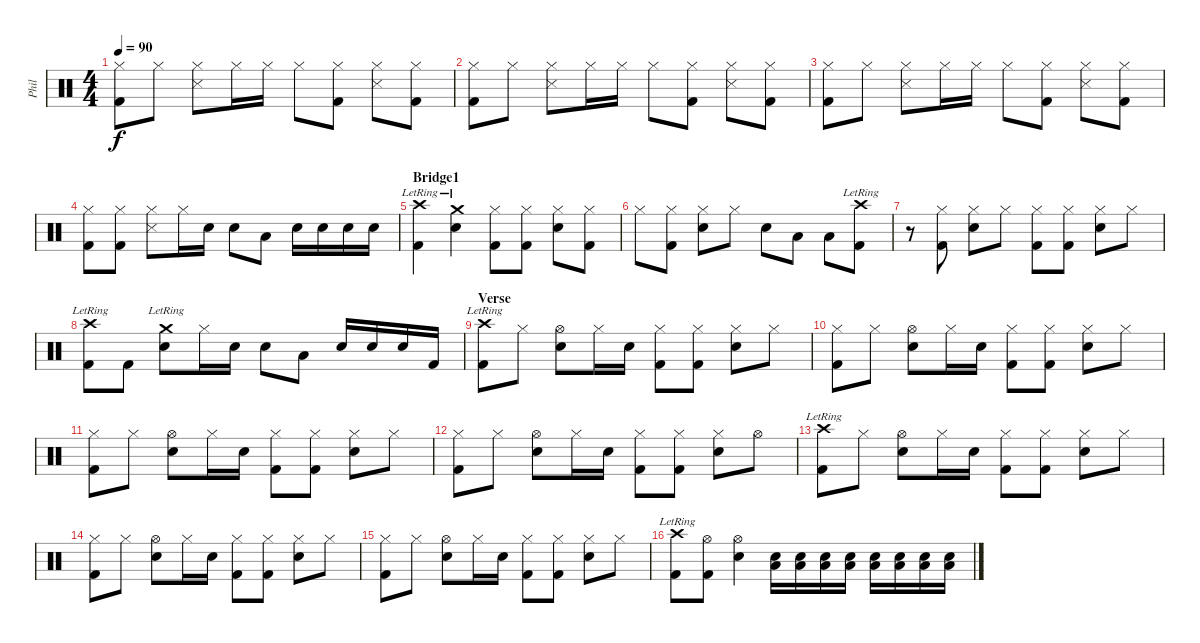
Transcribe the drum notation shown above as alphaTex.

\track ("Phil" "Phil") {instrument percussion}
\staff {score}
\articulation defaults
\ts (4 4)
\tempo 90
\clef neutral
\ks c
("Kick (hit) 2" "Hi-Hat (closed)").8{dy f} "Hi-Hat (closed)".8 ("Snare (side stick) 3" "Hi-Hat (closed)").8 "Hi-Hat (closed)".16 "Hi-Hat (closed)".16 "Hi-Hat (closed)".8 ("Kick (hit) 2" "Hi-Hat (closed)").8 ("Snare (side stick) 3" "Hi-Hat (closed)").8 ("Kick (hit) 2" "Hi-Hat (closed)").8 |
("Kick (hit) 2" "Hi-Hat (closed)").8 "Hi-Hat (closed)".8 ("Snare (side stick) 3" "Hi-Hat (closed)").8 "Hi-Hat (closed)".16 "Hi-Hat (closed)".16 "Hi-Hat (closed)".8 ("Kick (hit) 2" "Hi-Hat (closed)").8 ("Snare (side stick) 3" "Hi-Hat (closed)").8 ("Kick (hit) 2" "Hi-Hat (closed)").8 |
("Kick (hit) 2" "Hi-Hat (closed)").8 "Hi-Hat (closed)".8 ("Snare (side stick) 3" "Hi-Hat (closed)").8 "Hi-Hat (closed)".16 "Hi-Hat (closed)".16 "Hi-Hat (closed)".8 ("Kick (hit) 2" "Hi-Hat (closed)").8 ("Snare (side stick) 3" "Hi-Hat (closed)").8 ("Kick (hit) 2" "Hi-Hat (closed)").8 |
("Kick (hit) 2" "Hi-Hat (closed)").8 ("Kick (hit) 2" "Hi-Hat (closed)").8 ("Snare (side stick) 3" "Hi-Hat (closed)").8 "Hi-Hat (closed)".16 "Snare (hit) 2".16 "Snare (hit) 2".8 "Low Floor Tom (hit)".8 "Snare (hit) 2".16 "Snare (hit) 2".16 "Snare (hit) 2".16 "Snare (hit) 2".16 |
\section ("" "Bridge1")
("Kick (hit) 2" "Crash high (hit)"{lr}).4 ("Snare (hit) 2" "Crash medium (hit)"{lr}).4 ("Kick (hit) 2" "Hi-Hat (closed)").8 ("Kick (hit) 2" "Hi-Hat (closed)").8 ("Snare (hit) 2" "Hi-Hat (closed)").8 ("Kick (hit) 2" "Hi-Hat (closed)").8 |
"Hi-Hat (closed)".8 ("Kick (hit) 2" "Hi-Hat (closed)").8 ("Snare (hit) 2" "Hi-Hat (closed)").8 "Hi-Hat (closed)".8 "Snare (hit) 2".8 "Low Floor Tom (hit)".8 "Low Floor Tom (hit)".8 ("Kick (hit) 2" "Crash high (hit)"{lr}).8 |
r.8 ("Kick (hit) 2" "Hi-Hat (closed)").8 ("Snare (hit) 2" "Hi-Hat (closed)").8 "Hi-Hat (closed)".8 ("Kick (hit) 2" "Hi-Hat (closed)").8 ("Kick (hit) 2" "Hi-Hat (closed)").8 ("Snare (hit) 2" "Hi-Hat (closed)").8 "Hi-Hat (closed)".8 |
("Kick (hit) 2" "Crash high (hit)"{lr}).8 "Kick (hit) 2".8 ("Snare (hit) 2" "Crash medium (hit)"{lr}).8 "Hi-Hat (closed)".16 "Snare (hit) 2".16 "Snare (hit) 2".8 "Low Floor Tom (hit)".8 "Snare (hit) 2".16 "Snare (hit) 2".16 "Snare (hit) 2".16 "Kick (hit) 2".16 |
\section ("" "Verse")
("Kick (hit) 2" "Crash high (hit)"{lr}).8 "Hi-Hat (closed)".8 ("Snare (hit) 2" "Hi-Hat (open)").8 "Hi-Hat (closed)".16 "Snare (hit) 2".16 ("Kick (hit) 2" "Hi-Hat (closed)").8 ("Kick (hit) 2" "Hi-Hat (closed)").8 ("Snare (hit) 2" "Hi-Hat (closed)").8 "Hi-Hat (closed)".8 |
("Kick (hit) 2" "Hi-Hat (closed)").8 "Hi-Hat (closed)".8 ("Snare (hit) 2" "Hi-Hat (open)").8 "Hi-Hat (closed)".16 "Snare (hit) 2".16 ("Kick (hit) 2" "Hi-Hat (closed)").8 ("Kick (hit) 2" "Hi-Hat (closed)").8 ("Snare (hit) 2" "Hi-Hat (closed)").8 "Hi-Hat (closed)".8 |
("Kick (hit) 2" "Hi-Hat (closed)").8 "Hi-Hat (closed)".8 ("Snare (hit) 2" "Hi-Hat (open)").8 "Hi-Hat (closed)".16 "Snare (hit) 2".16 ("Kick (hit) 2" "Hi-Hat (closed)").8 ("Kick (hit) 2" "Hi-Hat (closed)").8 ("Snare (hit) 2" "Hi-Hat (closed)").8 "Hi-Hat (closed)".8 |
("Kick (hit) 2" "Hi-Hat (closed)").8 "Hi-Hat (closed)".8 ("Snare (hit) 2" "Hi-Hat (open)").8 "Hi-Hat (closed)".16 "Snare (hit) 2".16 ("Kick (hit) 2" "Hi-Hat (closed)").8 ("Kick (hit) 2" "Hi-Hat (closed)").8 ("Snare (hit) 2" "Hi-Hat (closed)").8 "Hi-Hat (open)".8 |
("Kick (hit) 2" "Crash high (hit)"{lr}).8 "Hi-Hat (closed)".8 ("Snare (hit) 2" "Hi-Hat (open)").8 "Hi-Hat (closed)".16 "Snare (hit) 2".16 ("Kick (hit) 2" "Hi-Hat (closed)").8 ("Kick (hit) 2" "Hi-Hat (closed)").8 ("Snare (hit) 2" "Hi-Hat (closed)").8 "Hi-Hat (closed)".8 |
("Kick (hit) 2" "Hi-Hat (closed)").8 "Hi-Hat (closed)".8 ("Snare (hit) 2" "Hi-Hat (open)").8 "Hi-Hat (closed)".16 "Snare (hit) 2".16 ("Kick (hit) 2" "Hi-Hat (closed)").8 ("Kick (hit) 2" "Hi-Hat (closed)").8 ("Snare (hit) 2" "Hi-Hat (closed)").8 "Hi-Hat (closed)".8 |
("Kick (hit) 2" "Hi-Hat (closed)").8 "Hi-Hat (closed)".8 ("Snare (hit) 2" "Hi-Hat (open)").8 "Hi-Hat (closed)".16 "Snare (hit) 2".16 ("Kick (hit) 2" "Hi-Hat (closed)").8 ("Kick (hit) 2" "Hi-Hat (closed)").8 ("Snare (hit) 2" "Hi-Hat (closed)").8 "Hi-Hat (closed)".8 |
("Kick (hit) 2" "Crash high (hit)"{lr}).8 ("Kick (hit) 2" "Hi-Hat (open)").8 ("Snare (hit) 2" "Hi-Hat (open)").4 ("Snare (hit) 2" "Low Floor Tom (hit)").16 ("Snare (hit) 2" "Low Floor Tom (hit)").16 ("Snare (hit) 2" "Low Floor Tom (hit)").16 ("Snare (hit) 2" "Low Floor Tom (hit)").16 ("Snare (hit) 2" "Low Floor Tom (hit)").16 ("Snare (hit) 2" "Low Floor Tom (hit)").16 ("Snare (hit) 2" "Low Floor Tom (hit)").16 ("Snare (hit) 2" "Low Floor Tom (hit)").16
